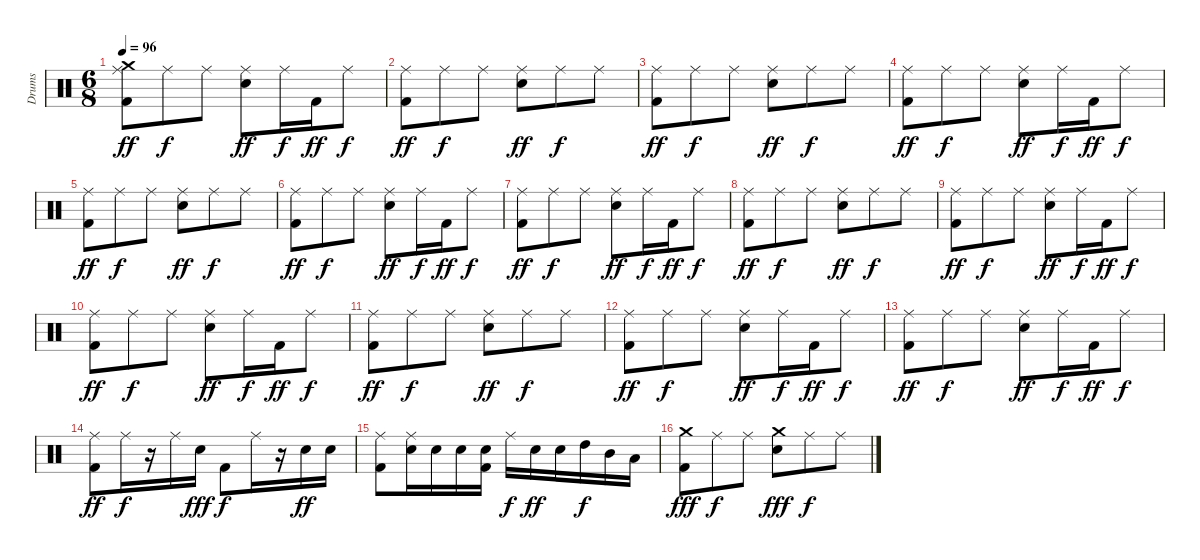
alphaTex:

\track ("Drums" "Drums") {instrument percussion}
\staff {score}
\articulation defaults
\ts (6 8)
\tempo 96
\clef neutral
\ks c
("Crash medium (hit)" "Ride (middle)" "Kick (hit) 2").8{dy ff} "Ride (middle)".8{dy f} "Ride (middle)".8 ("Ride (middle)" "Electric Snare (hit)").8{dy ff} "Ride (middle)".16{dy f} "Kick (hit) 2".16{dy ff} "Ride (middle)".8{dy f} |
("Ride (middle)" "Kick (hit) 2").8{dy ff} "Ride (middle)".8{dy f} "Ride (middle)".8 ("Ride (middle)" "Electric Snare (hit)").8{dy ff} "Ride (middle)".8{dy f} "Ride (middle)".8 |
("Kick (hit) 2" "Ride (middle)").8{dy ff} "Ride (middle)".8{dy f} "Ride (middle)".8 ("Electric Snare (hit)" "Ride (middle)").8{dy ff} "Ride (middle)".8{dy f} "Ride (middle)".8 |
("Kick (hit) 2" "Ride (middle)").8{dy ff} "Ride (middle)".8{dy f} "Ride (middle)".8 ("Electric Snare (hit)" "Ride (middle)").8{dy ff} "Ride (middle)".16{dy f} "Kick (hit) 2".16{dy ff} "Ride (middle)".8{dy f} |
("Kick (hit) 2" "Ride (middle)").8{dy ff} "Ride (middle)".8{dy f} "Ride (middle)".8 ("Electric Snare (hit)" "Ride (middle)").8{dy ff} "Ride (middle)".8{dy f} "Ride (middle)".8 |
("Ride (middle)" "Kick (hit) 2").8{dy ff} "Ride (middle)".8{dy f} "Ride (middle)".8 ("Ride (middle)" "Electric Snare (hit)").8{dy ff} "Ride (middle)".16{dy f} "Kick (hit) 2".16{dy ff} "Ride (middle)".8{dy f} |
("Kick (hit) 2" "Ride (middle)").8{dy ff} "Ride (middle)".8{dy f} "Ride (middle)".8 ("Electric Snare (hit)" "Ride (middle)").8{dy ff} "Ride (middle)".16{dy f} "Kick (hit) 2".16{dy ff} "Ride (middle)".8{dy f} |
("Kick (hit) 2" "Ride (middle)").8{dy ff} "Ride (middle)".8{dy f} "Ride (middle)".8 ("Electric Snare (hit)" "Ride (middle)").8{dy ff} "Ride (middle)".8{dy f} "Ride (middle)".8 |
("Ride (middle)" "Kick (hit) 2").8{dy ff} "Ride (middle)".8{dy f} "Ride (middle)".8 ("Ride (middle)" "Electric Snare (hit)").8{dy ff} "Ride (middle)".16{dy f} "Kick (hit) 2".16{dy ff} "Ride (middle)".8{dy f} |
("Ride (middle)" "Kick (hit) 2").8{dy ff} "Ride (middle)".8{dy f} "Ride (middle)".8 ("Ride (middle)" "Electric Snare (hit)").8{dy ff} "Ride (middle)".16{dy f} "Kick (hit) 2".16{dy ff} "Ride (middle)".8{dy f} |
("Kick (hit) 2" "Ride (middle)").8{dy ff} "Ride (middle)".8{dy f} "Ride (middle)".8 ("Electric Snare (hit)" "Ride (middle)").8{dy ff} "Ride (middle)".8{dy f} "Ride (middle)".8 |
("Ride (middle)" "Kick (hit) 2").8{dy ff} "Ride (middle)".8{dy f} "Ride (middle)".8 ("Ride (middle)" "Electric Snare (hit)").8{dy ff} "Ride (middle)".16{dy f} "Kick (hit) 2".16{dy ff} "Ride (middle)".8{dy f} |
("Kick (hit) 2" "Ride (middle)").8{dy ff} "Ride (middle)".8{dy f} "Ride (middle)".8 ("Electric Snare (hit)" "Ride (middle)").8{dy ff} "Ride (middle)".16{dy f} "Kick (hit) 2".16{dy ff} "Ride (middle)".8{dy f} |
("Ride (middle)" "Kick (hit) 2").8{dy ff} "Ride (middle)".16{dy f} r.16 "Ride (middle)".16 "Electric Snare (hit)".16{dy fff} "Kick (hit) 2".8{dy f} "Ride (middle)".16 r.16 "Electric Snare (hit)".16{dy ff} "Electric Snare (hit)".16 |
("Ride (middle)" "Kick (hit) 2").8 ("Ride (middle)" "Electric Snare (hit)").16 "Electric Snare (hit)".16 "Electric Snare (hit)".16 ("Kick (hit) 2" "Electric Snare (hit)").16 "Ride (middle)".16{dy f} "Electric Snare (hit)".16{dy ff} "Electric Snare (hit)".16 "High Tom (hit)".16{dy f} "Mid Tom (hit)".16 "Low Tom (hit)".16 |
("Kick (hit) 2" "Crash medium (hit)").8{dy fff} "Ride (middle)".8{dy f} "Ride (middle)".8 ("Electric Snare (hit)" "Crash medium (hit)").8{dy fff} "Ride (middle)".8{dy f} "Ride (middle)".8
